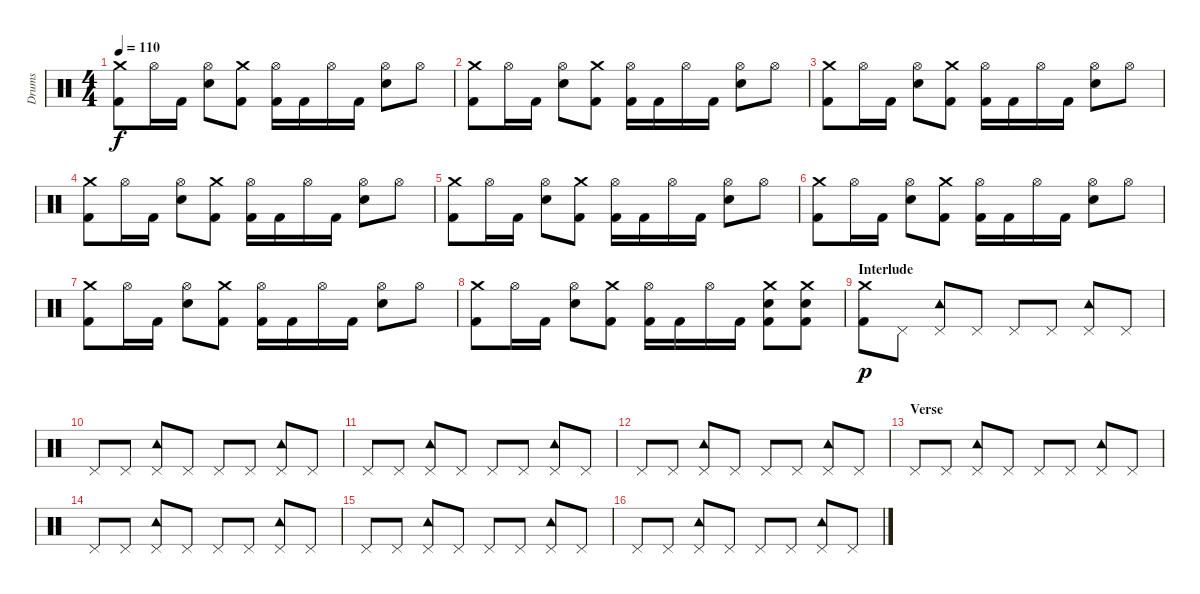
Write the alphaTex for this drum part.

\track ("Drums" "Drums") {instrument percussion}
\staff {score}
\articulation defaults
\ts (4 4)
\tempo 110
\clef neutral
\ks c
("Crash medium (hit)" "Kick (hit) 2").8{dy f} "Hi-Hat (open)".16 "Kick (hit) 2".16 ("Hi-Hat (open)" "Electric Snare (hit)").8 ("Crash medium (hit)" "Kick (hit) 2").8 ("Hi-Hat (open)" "Kick (hit) 2").16 "Kick (hit) 2".16 "Hi-Hat (open)".16 "Kick (hit) 2".16 ("Hi-Hat (open)" "Electric Snare (hit)").8 "Hi-Hat (open)".8 |
("Crash medium (hit)" "Kick (hit) 2").8 "Hi-Hat (open)".16 "Kick (hit) 2".16 ("Hi-Hat (open)" "Electric Snare (hit)").8 ("Crash medium (hit)" "Kick (hit) 2").8 ("Hi-Hat (open)" "Kick (hit) 2").16 "Kick (hit) 2".16 "Hi-Hat (open)".16 "Kick (hit) 2".16 ("Hi-Hat (open)" "Electric Snare (hit)").8 "Hi-Hat (open)".8 |
("Crash medium (hit)" "Kick (hit) 2").8 "Hi-Hat (open)".16 "Kick (hit) 2".16 ("Hi-Hat (open)" "Electric Snare (hit)").8 ("Crash medium (hit)" "Kick (hit) 2").8 ("Hi-Hat (open)" "Kick (hit) 2").16 "Kick (hit) 2".16 "Hi-Hat (open)".16 "Kick (hit) 2".16 ("Hi-Hat (open)" "Electric Snare (hit)").8 "Hi-Hat (open)".8 |
("Crash medium (hit)" "Kick (hit) 2").8 "Hi-Hat (open)".16 "Kick (hit) 2".16 ("Hi-Hat (open)" "Electric Snare (hit)").8 ("Crash medium (hit)" "Kick (hit) 2").8 ("Hi-Hat (open)" "Kick (hit) 2").16 "Kick (hit) 2".16 "Hi-Hat (open)".16 "Kick (hit) 2".16 ("Hi-Hat (open)" "Electric Snare (hit)").8 "Hi-Hat (open)".8 |
("Crash medium (hit)" "Kick (hit) 2").8 "Hi-Hat (open)".16 "Kick (hit) 2".16 ("Hi-Hat (open)" "Electric Snare (hit)").8 ("Crash medium (hit)" "Kick (hit) 2").8 ("Hi-Hat (open)" "Kick (hit) 2").16 "Kick (hit) 2".16 "Hi-Hat (open)".16 "Kick (hit) 2".16 ("Hi-Hat (open)" "Electric Snare (hit)").8 "Hi-Hat (open)".8 |
("Crash medium (hit)" "Kick (hit) 2").8 "Hi-Hat (open)".16 "Kick (hit) 2".16 ("Hi-Hat (open)" "Electric Snare (hit)").8 ("Crash medium (hit)" "Kick (hit) 2").8 ("Hi-Hat (open)" "Kick (hit) 2").16 "Kick (hit) 2".16 "Hi-Hat (open)".16 "Kick (hit) 2".16 ("Hi-Hat (open)" "Electric Snare (hit)").8 "Hi-Hat (open)".8 |
("Crash medium (hit)" "Kick (hit) 2").8 "Hi-Hat (open)".16 "Kick (hit) 2".16 ("Hi-Hat (open)" "Electric Snare (hit)").8 ("Crash medium (hit)" "Kick (hit) 2").8 ("Hi-Hat (open)" "Kick (hit) 2").16 "Kick (hit) 2".16 "Hi-Hat (open)".16 "Kick (hit) 2".16 ("Hi-Hat (open)" "Electric Snare (hit)").8 "Hi-Hat (open)".8 |
("Crash medium (hit)" "Kick (hit) 2").8 "Hi-Hat (open)".16 "Kick (hit) 2".16 ("Hi-Hat (open)" "Electric Snare (hit)").8 ("Crash medium (hit)" "Kick (hit) 2").8 ("Hi-Hat (open)" "Kick (hit) 2").16 "Kick (hit) 2".16 "Hi-Hat (open)".16 "Kick (hit) 2".16 ("Crash medium (hit)" "Electric Snare (hit)" "Kick (hit) 2").8 ("Crash medium (hit)" "Electric Snare (hit)" "Kick (hit) 2").8 |
\section ("" "Interlude")
("Crash medium (hit)" "Kick (hit) 2").8{dy p} "Pedal Hi-Hat (hit)".8 ("Pedal Hi-Hat (hit)" "Tambourine (hit)").8 "Pedal Hi-Hat (hit)".8 "Pedal Hi-Hat (hit)".8 "Pedal Hi-Hat (hit)".8 ("Pedal Hi-Hat (hit)" "Tambourine (hit)").8 "Pedal Hi-Hat (hit)".8 |
"Pedal Hi-Hat (hit)".8 "Pedal Hi-Hat (hit)".8 ("Pedal Hi-Hat (hit)" "Tambourine (hit)").8 "Pedal Hi-Hat (hit)".8 "Pedal Hi-Hat (hit)".8 "Pedal Hi-Hat (hit)".8 ("Pedal Hi-Hat (hit)" "Tambourine (hit)").8 "Pedal Hi-Hat (hit)".8 |
"Pedal Hi-Hat (hit)".8 "Pedal Hi-Hat (hit)".8 ("Pedal Hi-Hat (hit)" "Tambourine (hit)").8 "Pedal Hi-Hat (hit)".8 "Pedal Hi-Hat (hit)".8 "Pedal Hi-Hat (hit)".8 ("Pedal Hi-Hat (hit)" "Tambourine (hit)").8 "Pedal Hi-Hat (hit)".8 |
"Pedal Hi-Hat (hit)".8 "Pedal Hi-Hat (hit)".8 ("Pedal Hi-Hat (hit)" "Tambourine (hit)").8 "Pedal Hi-Hat (hit)".8 "Pedal Hi-Hat (hit)".8 "Pedal Hi-Hat (hit)".8 ("Pedal Hi-Hat (hit)" "Tambourine (hit)").8 "Pedal Hi-Hat (hit)".8 |
\section ("" "Verse")
"Pedal Hi-Hat (hit)".8 "Pedal Hi-Hat (hit)".8 ("Pedal Hi-Hat (hit)" "Tambourine (hit)").8 "Pedal Hi-Hat (hit)".8 "Pedal Hi-Hat (hit)".8 "Pedal Hi-Hat (hit)".8 ("Pedal Hi-Hat (hit)" "Tambourine (hit)").8 "Pedal Hi-Hat (hit)".8 |
"Pedal Hi-Hat (hit)".8 "Pedal Hi-Hat (hit)".8 ("Pedal Hi-Hat (hit)" "Tambourine (hit)").8 "Pedal Hi-Hat (hit)".8 "Pedal Hi-Hat (hit)".8 "Pedal Hi-Hat (hit)".8 ("Pedal Hi-Hat (hit)" "Tambourine (hit)").8 "Pedal Hi-Hat (hit)".8 |
"Pedal Hi-Hat (hit)".8 "Pedal Hi-Hat (hit)".8 ("Pedal Hi-Hat (hit)" "Tambourine (hit)").8 "Pedal Hi-Hat (hit)".8 "Pedal Hi-Hat (hit)".8 "Pedal Hi-Hat (hit)".8 ("Pedal Hi-Hat (hit)" "Tambourine (hit)").8 "Pedal Hi-Hat (hit)".8 |
"Pedal Hi-Hat (hit)".8 "Pedal Hi-Hat (hit)".8 ("Pedal Hi-Hat (hit)" "Tambourine (hit)").8 "Pedal Hi-Hat (hit)".8 "Pedal Hi-Hat (hit)".8 "Pedal Hi-Hat (hit)".8 ("Pedal Hi-Hat (hit)" "Tambourine (hit)").8 "Pedal Hi-Hat (hit)".8
